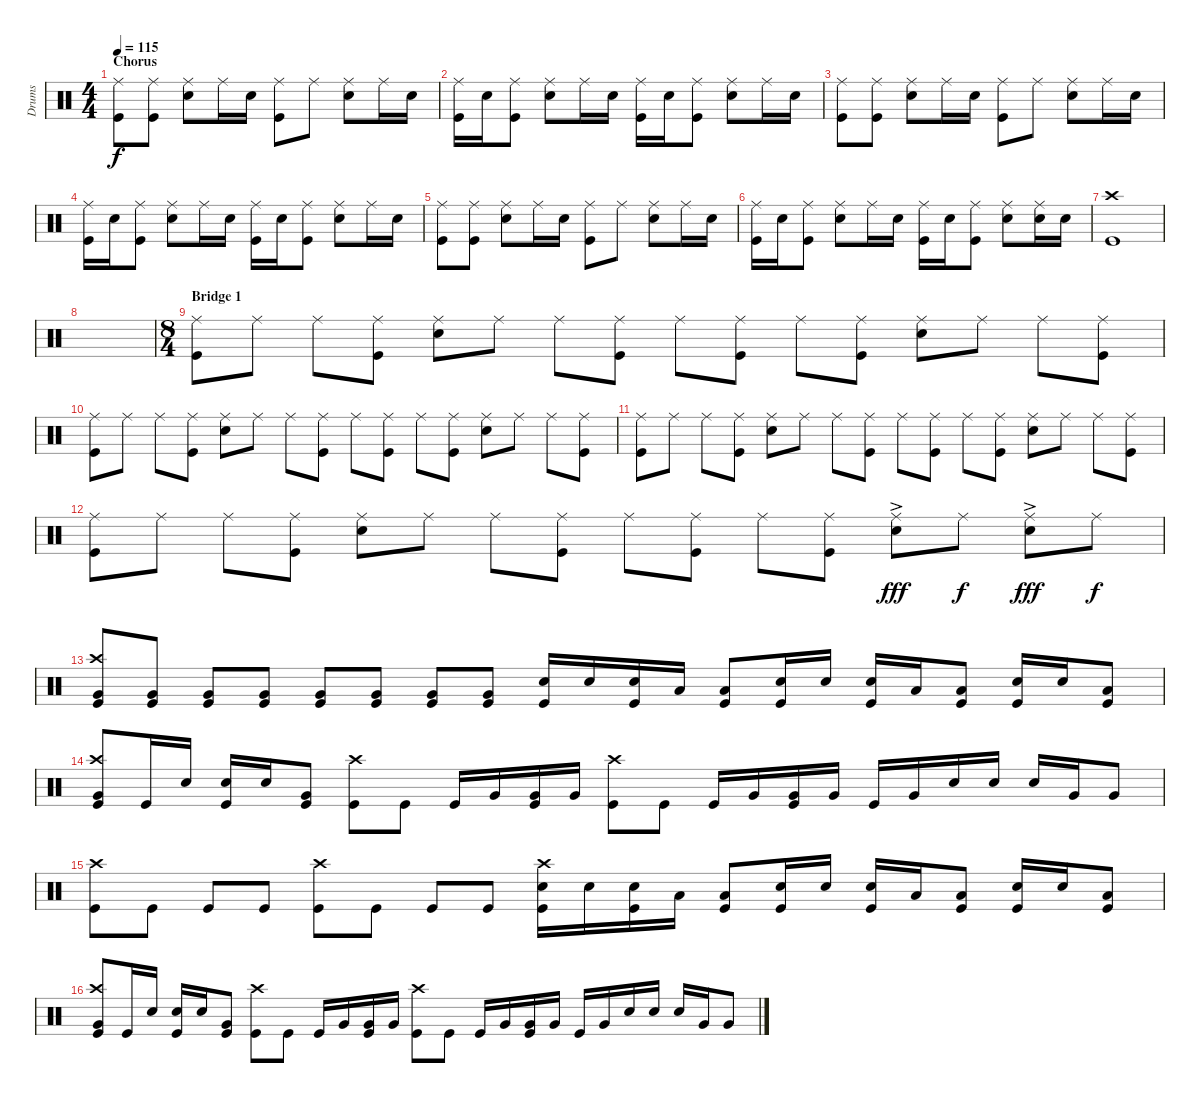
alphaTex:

\track ("Drums" "Drums") {instrument percussion}
\staff {score}
\articulation defaults
\ts (4 4)
\section ("" "Chorus")
\tempo 115
\clef neutral
\ks c
("Ride (middle)" "Kick (hit)").8{dy f} ("Ride (middle)" "Kick (hit)").8 ("Ride (middle)" "Snare (hit) 2").8 "Ride (middle)".16 "Snare (hit) 2".16 ("Ride (middle)" "Kick (hit)").8 "Ride (middle)".8 ("Ride (middle)" "Snare (hit) 2").8 "Ride (middle)".16 "Snare (hit) 2".16 |
("Ride (middle)" "Kick (hit)").16 "Snare (hit) 2".16 ("Ride (middle)" "Kick (hit)").8 ("Ride (middle)" "Snare (hit) 2").8 "Ride (middle)".16 "Snare (hit) 2".16 ("Ride (middle)" "Kick (hit)").16 "Snare (hit) 2".16 ("Ride (middle)" "Kick (hit)").8 ("Ride (middle)" "Snare (hit) 2").8 "Ride (middle)".16 "Snare (hit) 2".16 |
("Ride (middle)" "Kick (hit)").8 ("Ride (middle)" "Kick (hit)").8 ("Ride (middle)" "Snare (hit) 2").8 "Ride (middle)".16 "Snare (hit) 2".16 ("Ride (middle)" "Kick (hit)").8 "Ride (middle)".8 ("Ride (middle)" "Snare (hit) 2").8 "Ride (middle)".16 "Snare (hit) 2".16 |
("Ride (middle)" "Kick (hit)").16 "Snare (hit) 2".16 ("Ride (middle)" "Kick (hit)").8 ("Ride (middle)" "Snare (hit) 2").8 "Ride (middle)".16 "Snare (hit) 2".16 ("Ride (middle)" "Kick (hit)").16 "Snare (hit) 2".16 ("Ride (middle)" "Kick (hit)").8 ("Ride (middle)" "Snare (hit) 2").8 "Ride (middle)".16 "Snare (hit) 2".16 |
("Ride (middle)" "Kick (hit)").8 ("Ride (middle)" "Kick (hit)").8 ("Ride (middle)" "Snare (hit) 2").8 "Ride (middle)".16 "Snare (hit) 2".16 ("Ride (middle)" "Kick (hit)").8 "Ride (middle)".8 ("Ride (middle)" "Snare (hit) 2").8 "Ride (middle)".16 "Snare (hit) 2".16 |
("Ride (middle)" "Kick (hit)").16 "Snare (hit) 2".16 ("Ride (middle)" "Kick (hit)").8 ("Ride (middle)" "Snare (hit) 2").8 "Ride (middle)".16 "Snare (hit) 2".16 ("Ride (middle)" "Kick (hit)").16 "Snare (hit) 2".16 ("Ride (middle)" "Kick (hit)").8 ("Ride (middle)" "Snare (hit) 2").8 ("Ride (middle)" "Snare (hit) 2").16 "Snare (hit) 2".16 |
("Crash high (hit)" "Kick (hit)").1 |
|
\ts (8 4)
\section ("" "Bridge 1")
("Ride (middle)" "Kick (hit)").8 "Ride (middle)".8 "Ride (middle)".8 ("Ride (middle)" "Kick (hit)").8 ("Ride (middle)" "Snare (hit) 2").8 "Ride (middle)".8 "Ride (middle)".8 ("Ride (middle)" "Kick (hit)").8 "Ride (middle)".8 ("Ride (middle)" "Kick (hit)").8 "Ride (middle)".8 ("Ride (middle)" "Kick (hit)").8 ("Ride (middle)" "Snare (hit) 2").8 "Ride (middle)".8 "Ride (middle)".8 ("Ride (middle)" "Kick (hit)").8 |
("Ride (middle)" "Kick (hit)").8 "Ride (middle)".8 "Ride (middle)".8 ("Ride (middle)" "Kick (hit)").8 ("Ride (middle)" "Snare (hit) 2").8 "Ride (middle)".8 "Ride (middle)".8 ("Ride (middle)" "Kick (hit)").8 "Ride (middle)".8 ("Ride (middle)" "Kick (hit)").8 "Ride (middle)".8 ("Ride (middle)" "Kick (hit)").8 ("Ride (middle)" "Snare (hit) 2").8 "Ride (middle)".8 "Ride (middle)".8 ("Ride (middle)" "Kick (hit)").8 |
("Ride (middle)" "Kick (hit)").8 "Ride (middle)".8 "Ride (middle)".8 ("Ride (middle)" "Kick (hit)").8 ("Ride (middle)" "Snare (hit) 2").8 "Ride (middle)".8 "Ride (middle)".8 ("Ride (middle)" "Kick (hit)").8 "Ride (middle)".8 ("Ride (middle)" "Kick (hit)").8 "Ride (middle)".8 ("Ride (middle)" "Kick (hit)").8 ("Ride (middle)" "Snare (hit) 2").8 "Ride (middle)".8 "Ride (middle)".8 ("Ride (middle)" "Kick (hit)").8 |
("Ride (middle)" "Kick (hit)").8 "Ride (middle)".8 "Ride (middle)".8 ("Ride (middle)" "Kick (hit)").8 ("Ride (middle)" "Snare (hit) 2").8 "Ride (middle)".8 "Ride (middle)".8 ("Ride (middle)" "Kick (hit)").8 "Ride (middle)".8 ("Ride (middle)" "Kick (hit)").8 "Ride (middle)".8 ("Ride (middle)" "Kick (hit)").8 ("Ride (middle)"{ac} "Snare (hit) 2").8{dy fff} "Ride (middle)".8{dy f} ("Ride (middle)"{ac} "Snare (hit) 2").8{dy fff} "Ride (middle)".8{dy f} |
\section ("" "")
("Crash high (hit)" "Very Low Tom (hit)" "Kick (hit)").8 ("Very Low Tom (hit)" "Kick (hit)").8 ("Very Low Tom (hit)" "Kick (hit)").8 ("Very Low Tom (hit)" "Kick (hit)").8 ("Very Low Tom (hit)" "Kick (hit)").8 ("Very Low Tom (hit)" "Kick (hit)").8 ("Very Low Tom (hit)" "Kick (hit)").8 ("Very Low Tom (hit)" "Kick (hit)").8 ("Snare (hit) 2" "Kick (hit)").16 "Snare (hit) 2".16 ("Snare (hit) 2" "Kick (hit)").16 "Low Tom (hit)".16 ("Low Tom (hit)" "Kick (hit)").8 ("Snare (hit) 2" "Kick (hit)").16 "Snare (hit) 2".16 ("Snare (hit) 2" "Kick (hit)").16 "Low Tom (hit)".16 ("Low Tom (hit)" "Kick (hit)").8 ("Snare (hit) 2" "Kick (hit)").16 "Snare (hit) 2".16 ("Low Tom (hit)" "Kick (hit)").8 |
("Crash high (hit)" "Very Low Tom (hit)" "Kick (hit)").8 "Kick (hit)".16 "Snare (hit) 2".16 ("Snare (hit) 2" "Kick (hit)").16 "Snare (hit) 2".16 ("Very Low Tom (hit)" "Kick (hit)").8 ("Crash high (hit)" "Kick (hit)").8 "Kick (hit)".8 "Kick (hit)".16 "Very Low Tom (hit)".16 ("Very Low Tom (hit)" "Kick (hit)").16 "Very Low Tom (hit)".16 ("Crash high (hit)" "Kick (hit)").8 "Kick (hit)".8 "Kick (hit)".16 "Very Low Tom (hit)".16 ("Very Low Tom (hit)" "Kick (hit)").16 "Very Low Tom (hit)".16 "Kick (hit)".16 "Very Low Tom (hit)".16 "Snare (hit) 2".16 "Snare (hit) 2".16 "Snare (hit) 2".16 "Very Low Tom (hit)".16 "Very Low Tom (hit)".8 |
("Crash high (hit)" "Kick (hit)").8 "Kick (hit)".8 "Kick (hit)".8 "Kick (hit)".8 ("Crash high (hit)" "Kick (hit)").8 "Kick (hit)".8 "Kick (hit)".8 "Kick (hit)".8 ("Crash high (hit)" "Snare (hit) 2" "Kick (hit)").16 "Snare (hit) 2".16 ("Snare (hit) 2" "Kick (hit)").16 "Low Tom (hit)".16 ("Low Tom (hit)" "Kick (hit)").8 ("Snare (hit) 2" "Kick (hit)").16 "Snare (hit) 2".16 ("Snare (hit) 2" "Kick (hit)").16 "Low Tom (hit)".16 ("Low Tom (hit)" "Kick (hit)").8 ("Snare (hit) 2" "Kick (hit)").16 "Snare (hit) 2".16 ("Low Tom (hit)" "Kick (hit)").8 |
("Crash high (hit)" "Very Low Tom (hit)" "Kick (hit)").8 "Kick (hit)".16 "Snare (hit) 2".16 ("Snare (hit) 2" "Kick (hit)").16 "Snare (hit) 2".16 ("Very Low Tom (hit)" "Kick (hit)").8 ("Crash high (hit)" "Kick (hit)").8 "Kick (hit)".8 "Kick (hit)".16 "Very Low Tom (hit)".16 ("Very Low Tom (hit)" "Kick (hit)").16 "Very Low Tom (hit)".16 ("Crash high (hit)" "Kick (hit)").8 "Kick (hit)".8 "Kick (hit)".16 "Very Low Tom (hit)".16 ("Very Low Tom (hit)" "Kick (hit)").16 "Very Low Tom (hit)".16 "Kick (hit)".16 "Very Low Tom (hit)".16 "Snare (hit) 2".16 "Snare (hit) 2".16 "Snare (hit) 2".16 "Very Low Tom (hit)".16 "Very Low Tom (hit)".8
